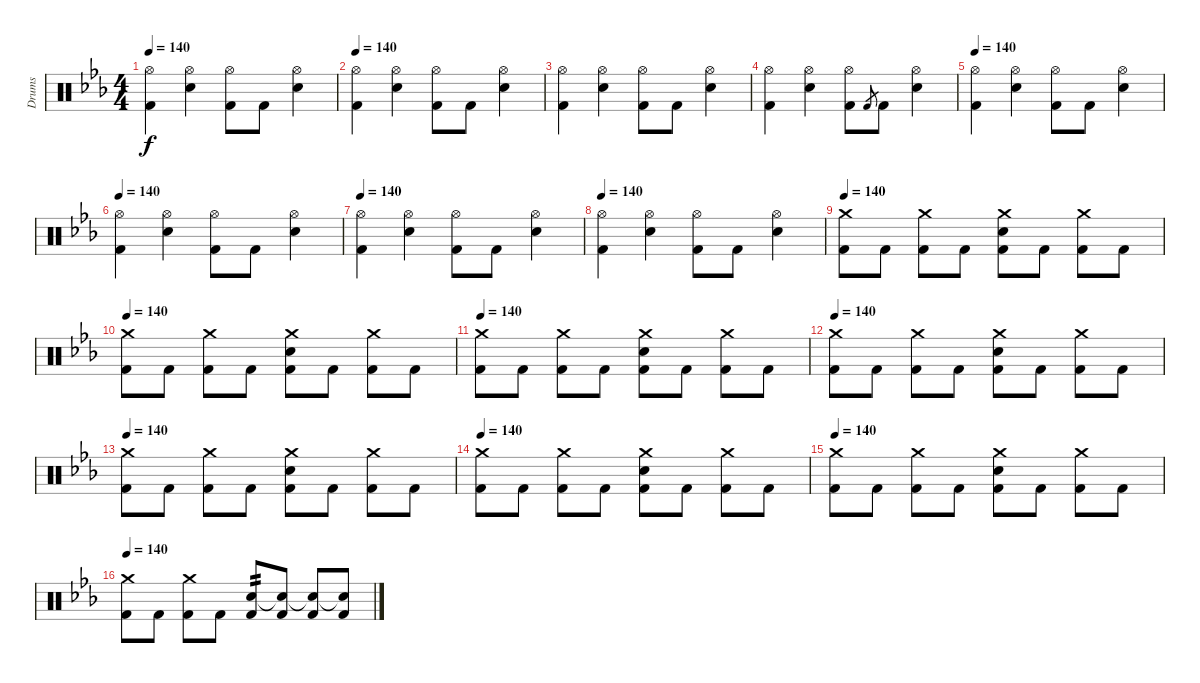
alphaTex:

\track ("Drums" "Drums") {instrument percussion}
\staff {score}
\articulation defaults
\ts (4 4)
\tempo 140
\clef neutral
\ks eb
("Hi-Hat (open)" "Kick (hit) 2").4{dy f} ("Hi-Hat (open)" "Snare (hit) 2").4 ("Hi-Hat (open)" "Kick (hit) 2").8 "Kick (hit) 2".8 ("Hi-Hat (open)" "Snare (hit) 2").4 |
\tempo 140
("Hi-Hat (open)" "Kick (hit) 2").4 ("Hi-Hat (open)" "Snare (hit) 2").4 ("Hi-Hat (open)" "Kick (hit) 2").8 "Kick (hit) 2".8 ("Hi-Hat (open)" "Snare (hit) 2").4 |
("Hi-Hat (open)" "Kick (hit) 2").4 ("Hi-Hat (open)" "Snare (hit) 2").4 ("Hi-Hat (open)" "Kick (hit) 2").8 "Kick (hit) 2".8 ("Hi-Hat (open)" "Snare (hit) 2").4 |
("Hi-Hat (open)" "Kick (hit) 2").4 ("Hi-Hat (open)" "Snare (hit) 2").4 ("Hi-Hat (open)" "Kick (hit) 2").8 "Kick (hit) 2".8{gr} "Kick (hit) 2".8 ("Hi-Hat (open)" "Snare (hit) 2").4 |
\tempo 140
("Hi-Hat (open)" "Kick (hit) 2").4 ("Hi-Hat (open)" "Snare (hit) 2").4 ("Hi-Hat (open)" "Kick (hit) 2").8 "Kick (hit) 2".8 ("Hi-Hat (open)" "Snare (hit) 2").4 |
\tempo 140
("Hi-Hat (open)" "Kick (hit) 2").4 ("Hi-Hat (open)" "Snare (hit) 2").4 ("Hi-Hat (open)" "Kick (hit) 2").8 "Kick (hit) 2".8 ("Hi-Hat (open)" "Snare (hit) 2").4 |
\tempo 140
("Hi-Hat (open)" "Kick (hit) 2").4 ("Hi-Hat (open)" "Snare (hit) 2").4 ("Hi-Hat (open)" "Kick (hit) 2").8 "Kick (hit) 2".8 ("Hi-Hat (open)" "Snare (hit) 2").4 |
\tempo 140
("Hi-Hat (open)" "Kick (hit) 2").4 ("Hi-Hat (open)" "Snare (hit) 2").4 ("Hi-Hat (open)" "Kick (hit) 2").8 "Kick (hit) 2".8 ("Hi-Hat (open)" "Snare (hit) 2").4 |
\tempo 140
("Crash medium (hit)" "Kick (hit) 2").8 "Kick (hit) 2".8 ("Crash medium (hit)" "Kick (hit) 2").8 "Kick (hit) 2".8 ("Crash medium (hit)" "Snare (hit) 2" "Kick (hit) 2").8 "Kick (hit) 2".8 ("Crash medium (hit)" "Kick (hit) 2").8 "Kick (hit) 2".8 |
\tempo 140
("Crash medium (hit)" "Kick (hit) 2").8 "Kick (hit) 2".8 ("Crash medium (hit)" "Kick (hit) 2").8 "Kick (hit) 2".8 ("Crash medium (hit)" "Snare (hit) 2" "Kick (hit) 2").8 "Kick (hit) 2".8 ("Crash medium (hit)" "Kick (hit) 2").8 "Kick (hit) 2".8 |
\tempo 140
("Crash medium (hit)" "Kick (hit) 2").8 "Kick (hit) 2".8 ("Crash medium (hit)" "Kick (hit) 2").8 "Kick (hit) 2".8 ("Crash medium (hit)" "Snare (hit) 2" "Kick (hit) 2").8 "Kick (hit) 2".8 ("Crash medium (hit)" "Kick (hit) 2").8 "Kick (hit) 2".8 |
\tempo 140
("Crash medium (hit)" "Kick (hit) 2").8 "Kick (hit) 2".8 ("Crash medium (hit)" "Kick (hit) 2").8 "Kick (hit) 2".8 ("Crash medium (hit)" "Snare (hit) 2" "Kick (hit) 2").8 "Kick (hit) 2".8 ("Crash medium (hit)" "Kick (hit) 2").8 "Kick (hit) 2".8 |
\tempo 140
("Crash medium (hit)" "Kick (hit) 2").8 "Kick (hit) 2".8 ("Crash medium (hit)" "Kick (hit) 2").8 "Kick (hit) 2".8 ("Crash medium (hit)" "Snare (hit) 2" "Kick (hit) 2").8 "Kick (hit) 2".8 ("Crash medium (hit)" "Kick (hit) 2").8 "Kick (hit) 2".8 |
\tempo 140
("Crash medium (hit)" "Kick (hit) 2").8 "Kick (hit) 2".8 ("Crash medium (hit)" "Kick (hit) 2").8 "Kick (hit) 2".8 ("Crash medium (hit)" "Snare (hit) 2" "Kick (hit) 2").8 "Kick (hit) 2".8 ("Crash medium (hit)" "Kick (hit) 2").8 "Kick (hit) 2".8 |
\tempo 140
("Crash medium (hit)" "Kick (hit) 2").8 "Kick (hit) 2".8 ("Crash medium (hit)" "Kick (hit) 2").8 "Kick (hit) 2".8 ("Crash medium (hit)" "Snare (hit) 2" "Kick (hit) 2").8 "Kick (hit) 2".8 ("Crash medium (hit)" "Kick (hit) 2").8 "Kick (hit) 2".8 |
\tempo 140
("Crash medium (hit)" "Kick (hit) 2").8 "Kick (hit) 2".8 ("Crash medium (hit)" "Kick (hit) 2").8 "Kick (hit) 2".8 ("Snare (hit) 2" "Kick (hit) 2").8{tp 2} ("Snare (hit)"{t} "Kick (hit) 2").8 ("Snare (hit)"{t} "Kick (hit) 2").8 ("Snare (hit)"{t} "Kick (hit) 2").8
